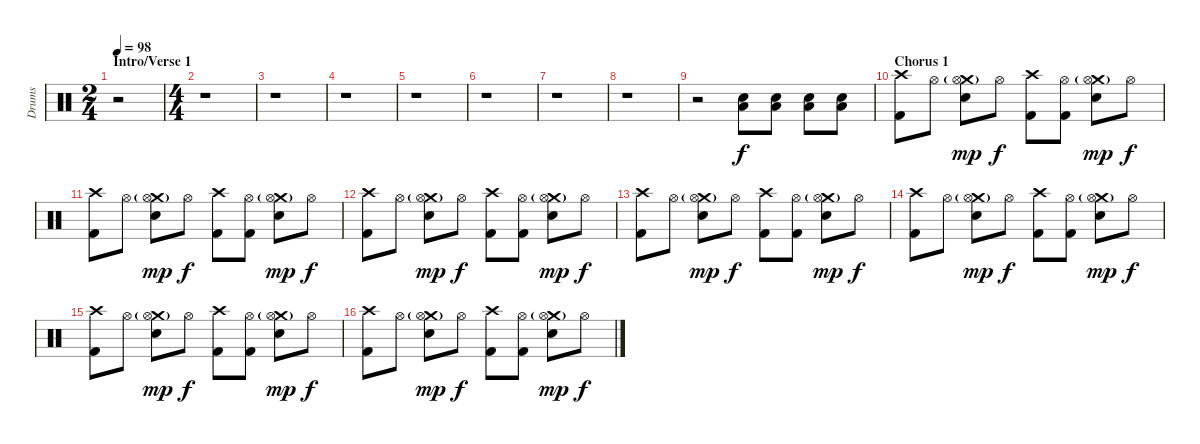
\track ("Drums" "Drums") {instrument percussion}
\staff {score}
\articulation defaults
\ts (2 4)
\section ("" "Intro/Verse 1")
\tempo 98
\clef neutral
\ks c
r.2{dy f} |
\ts (4 4)
r.1 |
r.1 |
r.1 |
r.1 |
r.1 |
r.1 |
r.1 |
r.2{volume 11} ("Snare (hit) 2" "Low Tom (hit)").8{volume 13} ("Snare (hit) 2" "Low Tom (hit)").8 ("Snare (hit) 2" "Low Tom (hit)").8 ("Snare (hit) 2" "Low Tom (hit)").8 |
\section ("" "Chorus 1")
("Crash high (hit)" "Kick (hit) 2").8 "Hi-Hat (open)".8 ("Crash medium (hit)"{g} "Hi-Hat (open)" "Snare (hit) 2").8{dy mp} "Hi-Hat (open)".8{dy f} ("Crash high (hit)" "Kick (hit) 2").8 ("Hi-Hat (open)" "Kick (hit) 2").8 ("Crash medium (hit)"{g} "Hi-Hat (open)" "Snare (hit) 2").8{dy mp} "Hi-Hat (open)".8{dy f} |
("Crash high (hit)" "Kick (hit) 2").8 "Hi-Hat (open)".8 ("Crash medium (hit)"{g} "Hi-Hat (open)" "Snare (hit) 2").8{dy mp} "Hi-Hat (open)".8{dy f} ("Crash high (hit)" "Kick (hit) 2").8 ("Hi-Hat (open)" "Kick (hit) 2").8 ("Crash medium (hit)"{g} "Hi-Hat (open)" "Snare (hit) 2").8{dy mp} "Hi-Hat (open)".8{dy f} |
("Crash high (hit)" "Kick (hit) 2").8 "Hi-Hat (open)".8 ("Crash medium (hit)"{g} "Hi-Hat (open)" "Snare (hit) 2").8{dy mp} "Hi-Hat (open)".8{dy f} ("Crash high (hit)" "Kick (hit) 2").8 ("Hi-Hat (open)" "Kick (hit) 2").8 ("Crash medium (hit)"{g} "Hi-Hat (open)" "Snare (hit) 2").8{dy mp} "Hi-Hat (open)".8{dy f} |
("Crash high (hit)" "Kick (hit) 2").8 "Hi-Hat (open)".8 ("Crash medium (hit)"{g} "Hi-Hat (open)" "Snare (hit) 2").8{dy mp} "Hi-Hat (open)".8{dy f} ("Crash high (hit)" "Kick (hit) 2").8 ("Hi-Hat (open)" "Kick (hit) 2").8 ("Crash medium (hit)"{g} "Hi-Hat (open)" "Snare (hit) 2").8{dy mp} "Hi-Hat (open)".8{dy f} |
("Crash high (hit)" "Kick (hit) 2").8 "Hi-Hat (open)".8 ("Crash medium (hit)"{g} "Hi-Hat (open)" "Snare (hit) 2").8{dy mp} "Hi-Hat (open)".8{dy f} ("Crash high (hit)" "Kick (hit) 2").8 ("Hi-Hat (open)" "Kick (hit) 2").8 ("Crash medium (hit)"{g} "Hi-Hat (open)" "Snare (hit) 2").8{dy mp} "Hi-Hat (open)".8{dy f} |
("Crash high (hit)" "Kick (hit) 2").8 "Hi-Hat (open)".8 ("Crash medium (hit)"{g} "Hi-Hat (open)" "Snare (hit) 2").8{dy mp} "Hi-Hat (open)".8{dy f} ("Crash high (hit)" "Kick (hit) 2").8 ("Hi-Hat (open)" "Kick (hit) 2").8 ("Crash medium (hit)"{g} "Hi-Hat (open)" "Snare (hit) 2").8{dy mp} "Hi-Hat (open)".8{dy f} |
("Crash high (hit)" "Kick (hit) 2").8 "Hi-Hat (open)".8 ("Crash medium (hit)"{g} "Hi-Hat (open)" "Snare (hit) 2").8{dy mp} "Hi-Hat (open)".8{dy f} ("Crash high (hit)" "Kick (hit) 2").8 ("Hi-Hat (open)" "Kick (hit) 2").8 ("Crash medium (hit)"{g} "Hi-Hat (open)" "Snare (hit) 2").8{dy mp} "Hi-Hat (open)".8{dy f}
